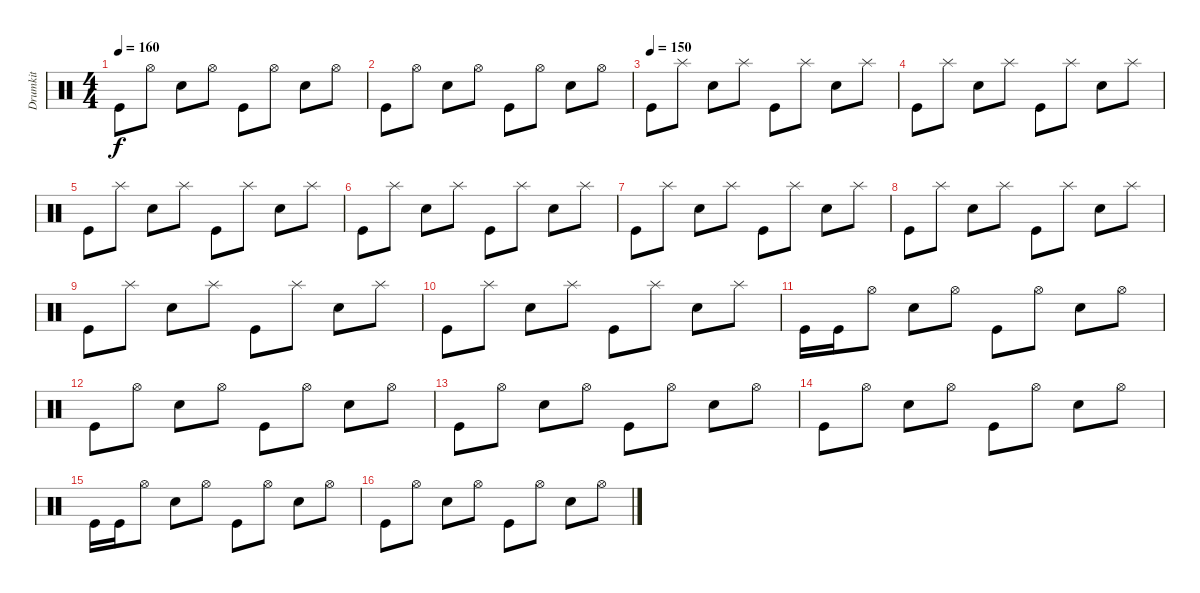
\track ("Drumkit" "Drumkit") {instrument percussion}
\staff {score}
\articulation defaults
\ts (4 4)
\tempo 160
\clef neutral
\ks c "Kick (hit)".8{dy f} "Hi-Hat (open)".8 "Snare (hit) 2".8 "Hi-Hat (open)".8 "Kick (hit)".8 "Hi-Hat (open)".8 "Snare (hit) 2".8 "Hi-Hat (open)".8
|
"Kick (hit)".8 "Hi-Hat (open)".8 "Snare (hit) 2".8 "Hi-Hat (open)".8 "Kick (hit)".8 "Hi-Hat (open)".8 "Snare (hit) 2".8 "Hi-Hat (open)".8 |
\tempo (150)
"Kick (hit)".8 "Splash (hit)".8 "Snare (hit) 2".8 "Splash (hit)".8 "Kick (hit)".8 "Splash (hit)".8 "Snare (hit) 2".8 "Splash (hit)".8 |
"Kick (hit)".8 "Splash (hit)".8 "Snare (hit) 2".8 "Splash (hit)".8 "Kick (hit)".8 "Splash (hit)".8 "Snare (hit) 2".8 "Splash (hit)".8 |
"Kick (hit)".8 "Splash (hit)".8 "Snare (hit) 2".8 "Splash (hit)".8 "Kick (hit)".8 "Splash (hit)".8 "Snare (hit) 2".8 "Splash (hit)".8 |
"Kick (hit)".8 "Splash (hit)".8 "Snare (hit) 2".8 "Splash (hit)".8 "Kick (hit)".8 "Splash (hit)".8 "Snare (hit) 2".8 "Splash (hit)".8 |
"Kick (hit)".8 "Splash (hit)".8 "Snare (hit) 2".8 "Splash (hit)".8 "Kick (hit)".8 "Splash (hit)".8 "Snare (hit) 2".8 "Splash (hit)".8 |
"Kick (hit)".8 "Splash (hit)".8 "Snare (hit) 2".8 "Splash (hit)".8 "Kick (hit)".8 "Splash (hit)".8 "Snare (hit) 2".8 "Splash (hit)".8 |
"Kick (hit)".8 "Splash (hit)".8 "Snare (hit) 2".8 "Splash (hit)".8 "Kick (hit)".8 "Splash (hit)".8 "Snare (hit) 2".8 "Splash (hit)".8 |
"Kick (hit)".8 "Splash (hit)".8 "Snare (hit) 2".8 "Splash (hit)".8 "Kick (hit)".8 "Splash (hit)".8 "Snare (hit) 2".8 "Splash (hit)".8 |
"Kick (hit)".16 "Kick (hit)".16 "Hi-Hat (open)".8 "Snare (hit) 2".8 "Hi-Hat (open)".8 "Kick (hit)".8 "Hi-Hat (open)".8 "Snare (hit) 2".8 "Hi-Hat (open)".8 |
"Kick (hit)".8 "Hi-Hat (open)".8 "Snare (hit) 2".8 "Hi-Hat (open)".8 "Kick (hit)".8 "Hi-Hat (open)".8 "Snare (hit) 2".8 "Hi-Hat (open)".8 |
"Kick (hit)".8 "Hi-Hat (open)".8 "Snare (hit) 2".8 "Hi-Hat (open)".8 "Kick (hit)".8 "Hi-Hat (open)".8 "Snare (hit) 2".8 "Hi-Hat (open)".8 |
"Kick (hit)".8 "Hi-Hat (open)".8 "Snare (hit) 2".8 "Hi-Hat (open)".8 "Kick (hit)".8 "Hi-Hat (open)".8 "Snare (hit) 2".8 "Hi-Hat (open)".8 |
"Kick (hit)".16 "Kick (hit)".16 "Hi-Hat (open)".8 "Snare (hit) 2".8 "Hi-Hat (open)".8 "Kick (hit)".8 "Hi-Hat (open)".8 "Snare (hit) 2".8 "Hi-Hat (open)".8 |
"Kick (hit)".8 "Hi-Hat (open)".8 "Snare (hit) 2".8 "Hi-Hat (open)".8 "Kick (hit)".8 "Hi-Hat (open)".8 "Snare (hit) 2".8 "Hi-Hat (open)".8
